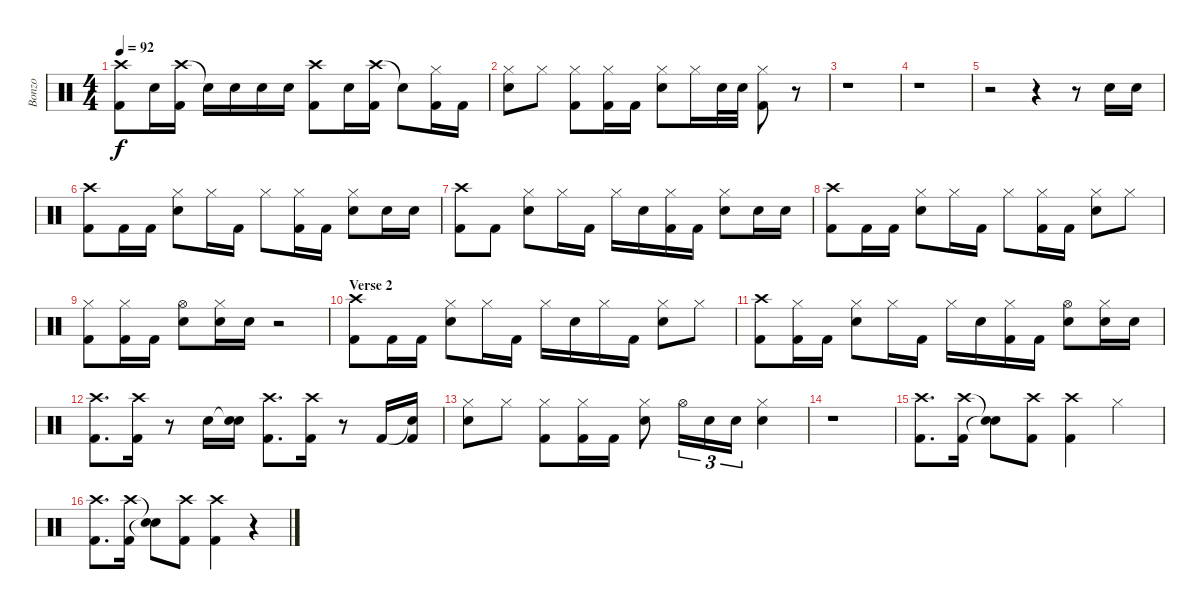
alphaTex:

\track ("Bonzo" "Bonzo") {instrument percussion}
\staff {score}
\articulation defaults
\ts (4 4)
\tempo 92
\clef neutral
\ks c
("Crash high (hit)" "Kick (hit) 2").8{dy f} "Snare (hit) 2".16 ("Crash high (hit)" "Kick (hit) 2").16 "Snare (hit)"{t}.16 "Snare (hit) 2".16 "Snare (hit) 2".16 "Snare (hit) 2".16 ("Crash high (hit)" "Kick (hit) 2").8 "Snare (hit) 2".16 ("Crash high (hit)" "Kick (hit) 2").16 "Snare (hit)"{t}.8 ("Hi-Hat (closed)" "Kick (hit) 2").16 "Kick (hit) 2".16 |
("Hi-Hat (closed)" "Snare (hit) 2").8 "Hi-Hat (closed)".8 ("Hi-Hat (closed)" "Kick (hit) 2").8 ("Hi-Hat (closed)" "Kick (hit) 2").16 "Kick (hit) 2".16 ("Hi-Hat (closed)" "Snare (hit) 2").8 "Hi-Hat (closed)".16 "Snare (hit) 2".32 "Snare (hit) 2".32 ("Hi-Hat (closed)" "Kick (hit) 2").8 r.8 |
r.1 |
r.1 |
r.2 r.4 r.8 "Snare (hit) 2".16 "Snare (hit) 2".16 |
("Crash high (hit)" "Kick (hit) 2").8 "Kick (hit) 2".16 "Kick (hit) 2".16 ("Hi-Hat (closed)" "Snare (hit) 2").8 "Hi-Hat (closed)".16 "Kick (hit) 2".16 "Hi-Hat (closed)".8 ("Hi-Hat (closed)" "Kick (hit) 2").16 "Kick (hit) 2".16 ("Hi-Hat (closed)" "Snare (hit) 2").8 "Snare (hit) 2".16 "Snare (hit) 2".16 |
("Crash high (hit)" "Kick (hit) 2").8 "Kick (hit) 2".8 ("Hi-Hat (closed)" "Snare (hit) 2").8 "Hi-Hat (closed)".16 "Kick (hit) 2".16 "Hi-Hat (closed)".16 "Snare (hit) 2".16 ("Hi-Hat (closed)" "Kick (hit) 2").16 "Kick (hit) 2".16 ("Hi-Hat (closed)" "Snare (hit) 2").8 "Snare (hit) 2".16 "Snare (hit) 2".16 |
("Crash high (hit)" "Kick (hit) 2").8 "Kick (hit) 2".16 "Kick (hit) 2".16 ("Hi-Hat (closed)" "Snare (hit) 2").8 "Hi-Hat (closed)".16 "Kick (hit) 2".16 "Hi-Hat (closed)".8 ("Hi-Hat (closed)" "Kick (hit) 2").16 "Kick (hit) 2".16 ("Hi-Hat (closed)" "Snare (hit) 2").8 "Hi-Hat (closed)".8 |
("Hi-Hat (closed)" "Kick (hit) 2").8 ("Hi-Hat (closed)" "Kick (hit) 2").16 "Kick (hit) 2".16 ("Hi-Hat (open)" "Snare (hit) 2").8 ("Hi-Hat (closed)" "Snare (hit) 2").16 "Snare (hit) 2".16 r.2 |
\section ("" "Verse 2")
("Crash high (hit)" "Kick (hit) 2").8 "Kick (hit) 2".16 "Kick (hit) 2".16 ("Hi-Hat (closed)" "Snare (hit) 2").8 "Hi-Hat (closed)".16 "Kick (hit) 2".16 "Hi-Hat (closed)".16 "Snare (hit) 2".16 "Hi-Hat (closed)".16 "Kick (hit) 2".16 ("Hi-Hat (closed)" "Snare (hit) 2").8 "Hi-Hat (closed)".8 |
("Crash high (hit)" "Kick (hit) 2").8 ("Hi-Hat (closed)" "Kick (hit) 2").16 "Kick (hit) 2".16 ("Hi-Hat (closed)" "Snare (hit) 2").8 "Hi-Hat (closed)".16 "Kick (hit) 2".16 "Hi-Hat (closed)".16 "Snare (hit) 2".16 ("Hi-Hat (closed)" "Kick (hit) 2").16 "Kick (hit) 2".16 ("Hi-Hat (open)" "Snare (hit) 2").8 ("Hi-Hat (closed)" "Snare (hit) 2").16 "Snare (hit) 2".16 |
("Crash high (hit)" "Kick (hit) 2").8{d} ("Crash high (hit)" "Kick (hit) 2").16 r.8 "Snare (hit) 2".16 ("Snare (hit)"{t} "Snare (hit) 2").16 ("Crash high (hit)" "Kick (hit) 2").8{d} ("Crash high (hit)" "Kick (hit) 2").16 r.8 "Kick (hit) 2".16 ("Snare (hit)"{t} "Kick (hit) 2").16 |
("Hi-Hat (closed)" "Snare (hit) 2").8 "Hi-Hat (closed)".8 ("Hi-Hat (closed)" "Kick (hit) 2").8 ("Hi-Hat (closed)" "Kick (hit) 2").16 "Kick (hit) 2".16 ("Hi-Hat (closed)" "Snare (hit) 2").8 "Hi-Hat (open)".16{tu (3 2)} "Snare (hit) 2".16{tu (3 2)} "Snare (hit) 2".16{tu (3 2)} ("Hi-Hat (closed)" "Snare (hit) 2").4 |
r.1 |
("Crash high (hit)" "Kick (hit) 2").8{d} ("Crash high (hit)" "Kick (hit) 2").16 ("Snare (hit)"{t} "Snare (hit)"{t}).8 ("Crash high (hit)" "Kick (hit) 2").8 ("Crash high (hit)" "Kick (hit) 2").4 "Hi-Hat (closed)".4 |
("Crash high (hit)" "Kick (hit) 2").8{d} ("Crash high (hit)" "Kick (hit) 2").16 ("Snare (hit)"{t} "Snare (hit)"{t}).8 ("Crash high (hit)" "Kick (hit) 2").8 ("Crash high (hit)" "Kick (hit) 2").4 r.4
